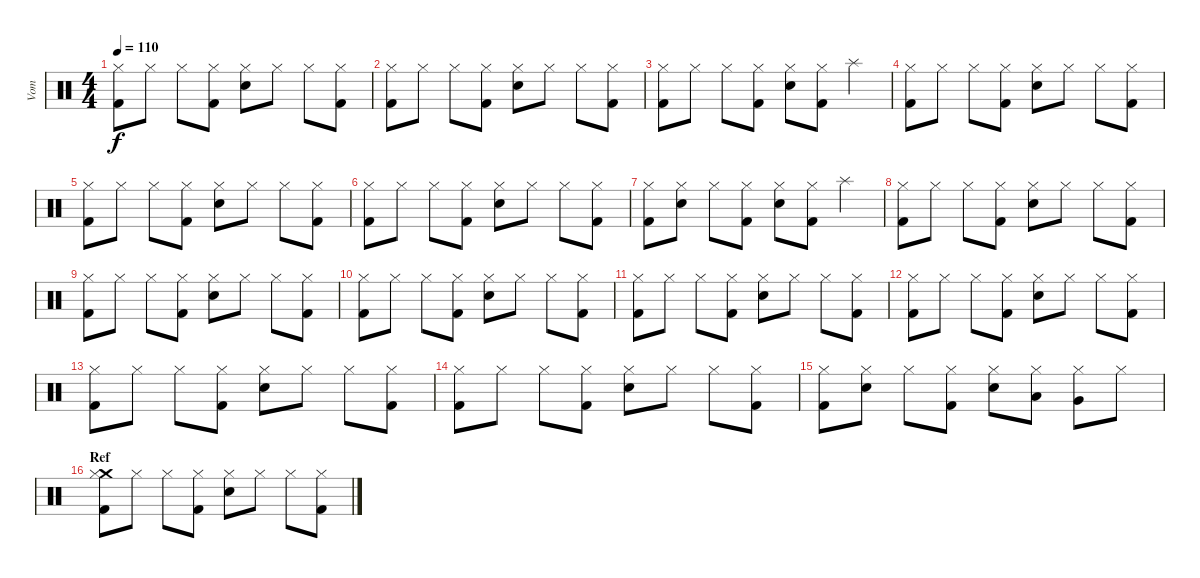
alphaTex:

\track ("Vom" "Vom") {instrument percussion}
\staff {score}
\articulation defaults
\ts (4 4)
\tempo 110
\clef neutral
\ks c
("Kick (hit) 2" "Hi-Hat (closed)").8{dy f} "Hi-Hat (closed)".8 "Hi-Hat (closed)".8 ("Kick (hit) 2" "Hi-Hat (closed)").8 ("Snare (hit) 2" "Hi-Hat (closed)").8 "Hi-Hat (closed)".8 "Hi-Hat (closed)".8 ("Kick (hit) 2" "Hi-Hat (closed)").8 |
("Kick (hit) 2" "Hi-Hat (closed)").8 "Hi-Hat (closed)".8 "Hi-Hat (closed)".8 ("Kick (hit) 2" "Hi-Hat (closed)").8 ("Snare (hit) 2" "Hi-Hat (closed)").8 "Hi-Hat (closed)".8 "Hi-Hat (closed)".8 ("Kick (hit) 2" "Hi-Hat (closed)").8 |
("Kick (hit) 2" "Hi-Hat (closed)").8 "Hi-Hat (closed)".8 "Hi-Hat (closed)".8 ("Kick (hit) 2" "Hi-Hat (closed)").8 ("Snare (hit) 2" "Hi-Hat (closed)").8 ("Kick (hit) 2" "Hi-Hat (closed)").8 "Splash (hit)".4 |
("Kick (hit) 2" "Hi-Hat (closed)").8 "Hi-Hat (closed)".8 "Hi-Hat (closed)".8 ("Kick (hit) 2" "Hi-Hat (closed)").8 ("Snare (hit) 2" "Hi-Hat (closed)").8 "Hi-Hat (closed)".8 "Hi-Hat (closed)".8 ("Kick (hit) 2" "Hi-Hat (closed)").8 |
("Kick (hit) 2" "Hi-Hat (closed)").8 "Hi-Hat (closed)".8 "Hi-Hat (closed)".8 ("Kick (hit) 2" "Hi-Hat (closed)").8 ("Snare (hit) 2" "Hi-Hat (closed)").8 "Hi-Hat (closed)".8 "Hi-Hat (closed)".8 ("Kick (hit) 2" "Hi-Hat (closed)").8 |
("Kick (hit) 2" "Hi-Hat (closed)").8 "Hi-Hat (closed)".8 "Hi-Hat (closed)".8 ("Kick (hit) 2" "Hi-Hat (closed)").8 ("Snare (hit) 2" "Hi-Hat (closed)").8 "Hi-Hat (closed)".8 "Hi-Hat (closed)".8 ("Kick (hit) 2" "Hi-Hat (closed)").8 |
("Kick (hit) 2" "Hi-Hat (closed)").8 ("Snare (hit) 2" "Hi-Hat (closed)").8 "Hi-Hat (closed)".8 ("Kick (hit) 2" "Hi-Hat (closed)").8 ("Snare (hit) 2" "Hi-Hat (closed)").8 ("Kick (hit) 2" "Hi-Hat (closed)").8 "Splash (hit)".4 |
("Kick (hit) 2" "Hi-Hat (closed)").8 "Hi-Hat (closed)".8 "Hi-Hat (closed)".8 ("Kick (hit) 2" "Hi-Hat (closed)").8 ("Snare (hit) 2" "Hi-Hat (closed)").8 "Hi-Hat (closed)".8 "Hi-Hat (closed)".8 ("Kick (hit) 2" "Hi-Hat (closed)").8 |
("Kick (hit) 2" "Hi-Hat (closed)").8 "Hi-Hat (closed)".8 "Hi-Hat (closed)".8 ("Kick (hit) 2" "Hi-Hat (closed)").8 ("Snare (hit) 2" "Hi-Hat (closed)").8 "Hi-Hat (closed)".8 "Hi-Hat (closed)".8 ("Kick (hit) 2" "Hi-Hat (closed)").8 |
("Kick (hit) 2" "Hi-Hat (closed)").8 "Hi-Hat (closed)".8 "Hi-Hat (closed)".8 ("Kick (hit) 2" "Hi-Hat (closed)").8 ("Snare (hit) 2" "Hi-Hat (closed)").8 "Hi-Hat (closed)".8 "Hi-Hat (closed)".8 ("Kick (hit) 2" "Hi-Hat (closed)").8 |
("Kick (hit) 2" "Hi-Hat (closed)").8 "Hi-Hat (closed)".8 "Hi-Hat (closed)".8 ("Kick (hit) 2" "Hi-Hat (closed)").8 ("Snare (hit) 2" "Hi-Hat (closed)").8 "Hi-Hat (closed)".8 "Hi-Hat (closed)".8 ("Kick (hit) 2" "Hi-Hat (closed)").8 |
("Kick (hit) 2" "Hi-Hat (closed)").8 "Hi-Hat (closed)".8 "Hi-Hat (closed)".8 ("Kick (hit) 2" "Hi-Hat (closed)").8 ("Snare (hit) 2" "Hi-Hat (closed)").8 "Hi-Hat (closed)".8 "Hi-Hat (closed)".8 ("Kick (hit) 2" "Hi-Hat (closed)").8 |
("Kick (hit) 2" "Hi-Hat (closed)").8 "Hi-Hat (closed)".8 "Hi-Hat (closed)".8 ("Kick (hit) 2" "Hi-Hat (closed)").8 ("Snare (hit) 2" "Hi-Hat (closed)").8 "Hi-Hat (closed)".8 "Hi-Hat (closed)".8 ("Kick (hit) 2" "Hi-Hat (closed)").8 |
("Kick (hit) 2" "Hi-Hat (closed)").8 "Hi-Hat (closed)".8 "Hi-Hat (closed)".8 ("Kick (hit) 2" "Hi-Hat (closed)").8 ("Snare (hit) 2" "Hi-Hat (closed)").8 "Hi-Hat (closed)".8 "Hi-Hat (closed)".8 ("Kick (hit) 2" "Hi-Hat (closed)").8 |
("Kick (hit) 2" "Hi-Hat (closed)").8 ("Snare (hit) 2" "Hi-Hat (closed)").8 "Hi-Hat (closed)".8 ("Kick (hit) 2" "Hi-Hat (closed)").8 ("Snare (hit) 2" "Hi-Hat (closed)").8 ("Low Tom (hit)" "Hi-Hat (closed)").8 ("Very Low Tom (hit)" "Hi-Hat (closed)").8 "Hi-Hat (closed)".8 |
\section ("" "Ref")
("Crash medium (hit)" "Kick (hit) 2" "Hi-Hat (closed)").8 "Hi-Hat (closed)".8 "Hi-Hat (closed)".8 ("Kick (hit) 2" "Hi-Hat (closed)").8 ("Snare (hit) 2" "Hi-Hat (closed)").8 "Hi-Hat (closed)".8 "Hi-Hat (closed)".8 ("Kick (hit) 2" "Hi-Hat (closed)").8
